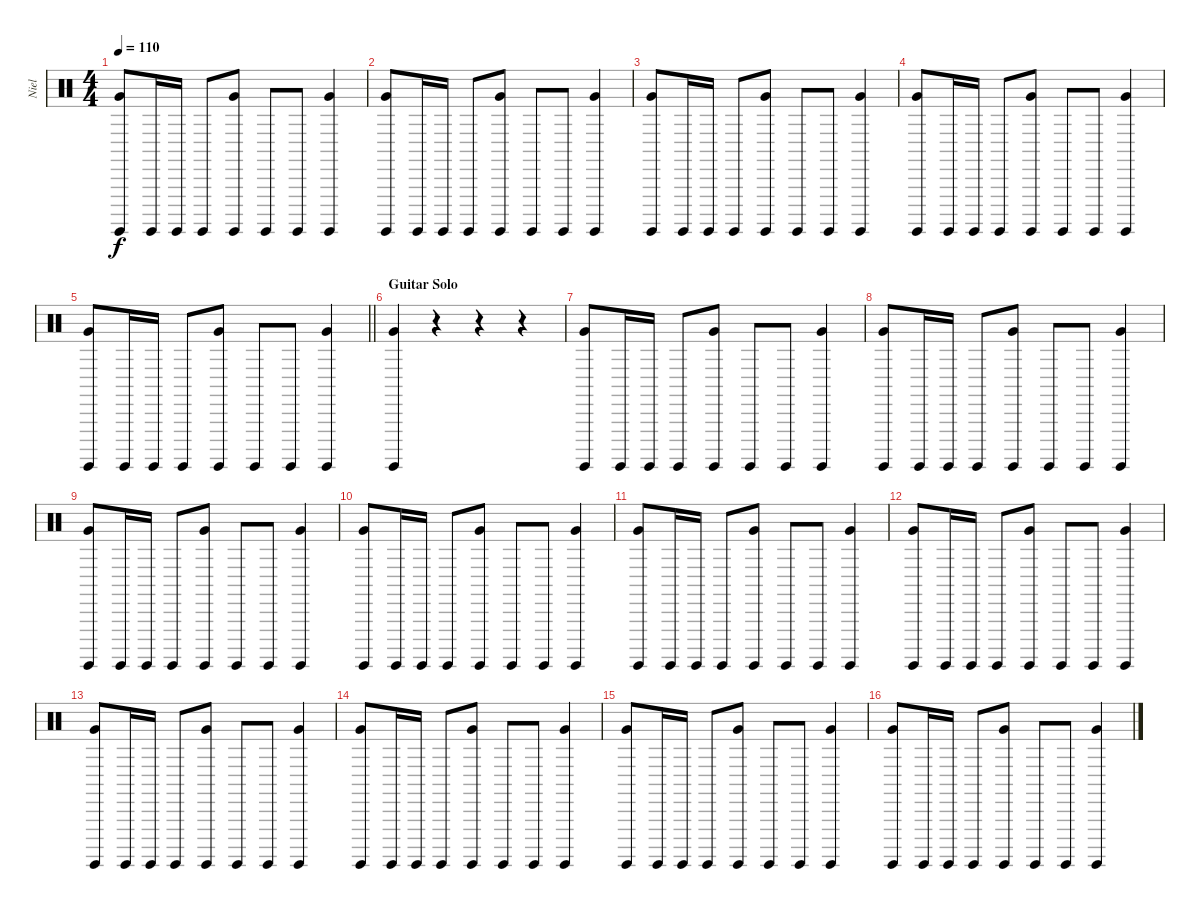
\track ("Niel" "Niel") {instrument percussion bank 1}
\staff {score}
\articulation defaults
\ts (4 4)
\tempo 110
\clef neutral
\ks c
("Very Low Tom (hit)" "Surdo (hit)").8{dy f} "Surdo (hit)".16 "Surdo (hit)".16 "Surdo (hit)".8 ("Very Low Tom (hit)" "Surdo (hit)").8 "Surdo (hit)".8 "Surdo (hit)".8 ("Very Low Tom (hit)" "Surdo (hit)").4 |
("Very Low Tom (hit)" "Surdo (hit)").8 "Surdo (hit)".16 "Surdo (hit)".16 "Surdo (hit)".8 ("Very Low Tom (hit)" "Surdo (hit)").8 "Surdo (hit)".8 "Surdo (hit)".8 ("Very Low Tom (hit)" "Surdo (hit)").4 |
("Very Low Tom (hit)" "Surdo (hit)").8 "Surdo (hit)".16 "Surdo (hit)".16 "Surdo (hit)".8 ("Very Low Tom (hit)" "Surdo (hit)").8 "Surdo (hit)".8 "Surdo (hit)".8 ("Very Low Tom (hit)" "Surdo (hit)").4 |
("Very Low Tom (hit)" "Surdo (hit)").8 "Surdo (hit)".16 "Surdo (hit)".16 "Surdo (hit)".8 ("Very Low Tom (hit)" "Surdo (hit)").8 "Surdo (hit)".8 "Surdo (hit)".8 ("Very Low Tom (hit)" "Surdo (hit)").4 |
\barLineRight lightlight
("Very Low Tom (hit)" "Surdo (hit)").8 "Surdo (hit)".16 "Surdo (hit)".16 "Surdo (hit)".8 ("Very Low Tom (hit)" "Surdo (hit)").8 "Surdo (hit)".8 "Surdo (hit)".8 ("Very Low Tom (hit)" "Surdo (hit)").4 |
\section ("" "Guitar Solo")
("Very Low Tom (hit)" "Surdo (hit)").4 r.4 r.4 r.4 |
("Very Low Tom (hit)" "Surdo (hit)").8 "Surdo (hit)".16 "Surdo (hit)".16 "Surdo (hit)".8 ("Very Low Tom (hit)" "Surdo (hit)").8 "Surdo (hit)".8 "Surdo (hit)".8 ("Very Low Tom (hit)" "Surdo (hit)").4 |
("Very Low Tom (hit)" "Surdo (hit)").8 "Surdo (hit)".16 "Surdo (hit)".16 "Surdo (hit)".8 ("Very Low Tom (hit)" "Surdo (hit)").8 "Surdo (hit)".8 "Surdo (hit)".8 ("Very Low Tom (hit)" "Surdo (hit)").4 |
("Very Low Tom (hit)" "Surdo (hit)").8 "Surdo (hit)".16 "Surdo (hit)".16 "Surdo (hit)".8 ("Very Low Tom (hit)" "Surdo (hit)").8 "Surdo (hit)".8 "Surdo (hit)".8 ("Very Low Tom (hit)" "Surdo (hit)").4 |
("Very Low Tom (hit)" "Surdo (hit)").8 "Surdo (hit)".16 "Surdo (hit)".16 "Surdo (hit)".8 ("Very Low Tom (hit)" "Surdo (hit)").8 "Surdo (hit)".8 "Surdo (hit)".8 ("Very Low Tom (hit)" "Surdo (hit)").4 |
("Very Low Tom (hit)" "Surdo (hit)").8 "Surdo (hit)".16 "Surdo (hit)".16 "Surdo (hit)".8 ("Very Low Tom (hit)" "Surdo (hit)").8 "Surdo (hit)".8 "Surdo (hit)".8 ("Very Low Tom (hit)" "Surdo (hit)").4 |
("Very Low Tom (hit)" "Surdo (hit)").8 "Surdo (hit)".16 "Surdo (hit)".16 "Surdo (hit)".8 ("Very Low Tom (hit)" "Surdo (hit)").8 "Surdo (hit)".8 "Surdo (hit)".8 ("Very Low Tom (hit)" "Surdo (hit)").4 |
("Very Low Tom (hit)" "Surdo (hit)").8 "Surdo (hit)".16 "Surdo (hit)".16 "Surdo (hit)".8 ("Very Low Tom (hit)" "Surdo (hit)").8 "Surdo (hit)".8 "Surdo (hit)".8 ("Very Low Tom (hit)" "Surdo (hit)").4 |
("Very Low Tom (hit)" "Surdo (hit)").8 "Surdo (hit)".16 "Surdo (hit)".16 "Surdo (hit)".8 ("Very Low Tom (hit)" "Surdo (hit)").8 "Surdo (hit)".8 "Surdo (hit)".8 ("Very Low Tom (hit)" "Surdo (hit)").4 |
("Very Low Tom (hit)" "Surdo (hit)").8 "Surdo (hit)".16 "Surdo (hit)".16 "Surdo (hit)".8 ("Very Low Tom (hit)" "Surdo (hit)").8 "Surdo (hit)".8 "Surdo (hit)".8 ("Very Low Tom (hit)" "Surdo (hit)").4 |
("Very Low Tom (hit)" "Surdo (hit)").8 "Surdo (hit)".16 "Surdo (hit)".16 "Surdo (hit)".8 ("Very Low Tom (hit)" "Surdo (hit)").8 "Surdo (hit)".8 "Surdo (hit)".8 ("Very Low Tom (hit)" "Surdo (hit)").4
